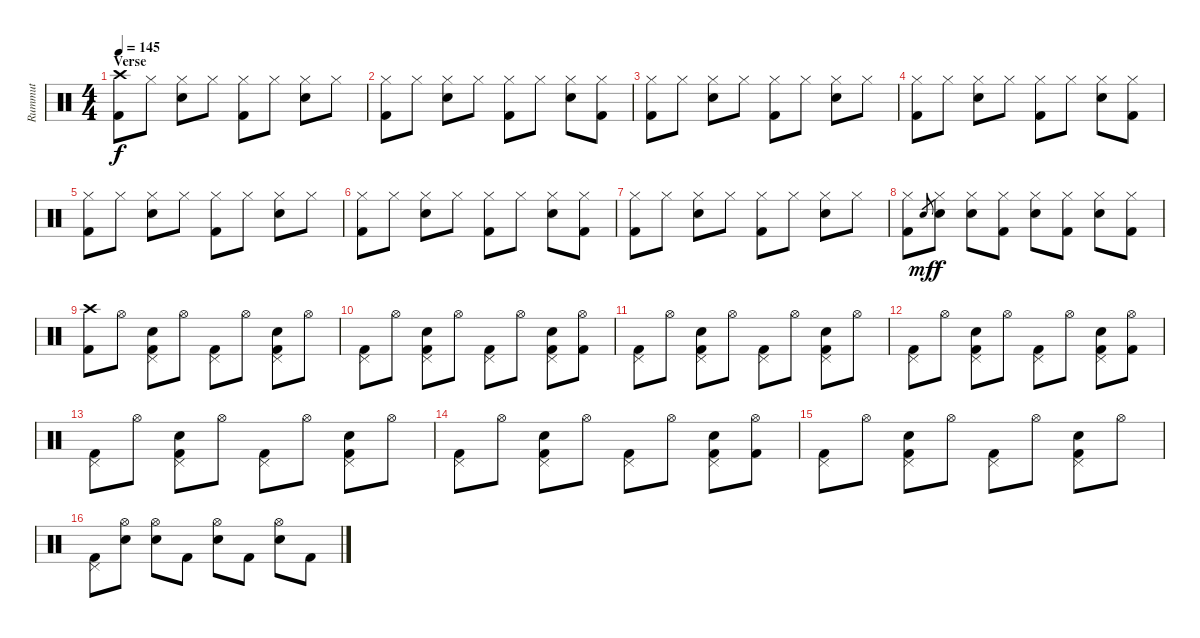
\track ("Rummut" "Rummut") {instrument percussion}
\staff {score}
\articulation defaults
\ts (4 4)
\section ("" "Verse")
\tempo 145
\clef neutral
\ks c
("Crash high (hit)" "Kick (hit) 2").8{dy f} "Hi-Hat (closed)".8 ("Hi-Hat (closed)" "Electric Snare (hit)").8 "Hi-Hat (closed)".8 ("Hi-Hat (closed)" "Kick (hit) 2").8 "Hi-Hat (closed)".8 ("Hi-Hat (closed)" "Electric Snare (hit)").8 "Hi-Hat (closed)".8 |
("Hi-Hat (closed)" "Kick (hit) 2").8 "Hi-Hat (closed)".8 ("Hi-Hat (closed)" "Electric Snare (hit)").8 "Hi-Hat (closed)".8 ("Hi-Hat (closed)" "Kick (hit) 2").8 "Hi-Hat (closed)".8 ("Hi-Hat (closed)" "Electric Snare (hit)").8 ("Hi-Hat (closed)" "Kick (hit) 2").8 |
("Hi-Hat (closed)" "Kick (hit) 2").8 "Hi-Hat (closed)".8 ("Hi-Hat (closed)" "Electric Snare (hit)").8 "Hi-Hat (closed)".8 ("Hi-Hat (closed)" "Kick (hit) 2").8 "Hi-Hat (closed)".8 ("Hi-Hat (closed)" "Electric Snare (hit)").8 "Hi-Hat (closed)".8 |
("Hi-Hat (closed)" "Kick (hit) 2").8 "Hi-Hat (closed)".8 ("Hi-Hat (closed)" "Electric Snare (hit)").8 "Hi-Hat (closed)".8 ("Hi-Hat (closed)" "Kick (hit) 2").8 "Hi-Hat (closed)".8 ("Hi-Hat (closed)" "Electric Snare (hit)").8 ("Hi-Hat (closed)" "Kick (hit) 2").8 |
("Hi-Hat (closed)" "Kick (hit) 2").8 "Hi-Hat (closed)".8 ("Hi-Hat (closed)" "Electric Snare (hit)").8 "Hi-Hat (closed)".8 ("Hi-Hat (closed)" "Kick (hit) 2").8 "Hi-Hat (closed)".8 ("Hi-Hat (closed)" "Electric Snare (hit)").8 "Hi-Hat (closed)".8 |
("Hi-Hat (closed)" "Kick (hit) 2").8 "Hi-Hat (closed)".8 ("Hi-Hat (closed)" "Electric Snare (hit)").8 "Hi-Hat (closed)".8 ("Hi-Hat (closed)" "Kick (hit) 2").8 "Hi-Hat (closed)".8 ("Hi-Hat (closed)" "Electric Snare (hit)").8 ("Hi-Hat (closed)" "Kick (hit) 2").8 |
("Hi-Hat (closed)" "Kick (hit) 2").8 "Hi-Hat (closed)".8 ("Hi-Hat (closed)" "Electric Snare (hit)").8 "Hi-Hat (closed)".8 ("Hi-Hat (closed)" "Kick (hit) 2").8 "Hi-Hat (closed)".8 ("Hi-Hat (closed)" "Electric Snare (hit)").8 "Hi-Hat (closed)".8 |
("Hi-Hat (closed)" "Kick (hit) 2").8 "Electric Snare (hit)".8{gr dy mf} ("Hi-Hat (closed)" "Electric Snare (hit)").8{dy f} ("Hi-Hat (closed)" "Electric Snare (hit)").8 ("Hi-Hat (closed)" "Kick (hit) 2").8 ("Hi-Hat (closed)" "Electric Snare (hit)").8 ("Hi-Hat (closed)" "Kick (hit) 2").8 ("Hi-Hat (closed)" "Electric Snare (hit)").8 ("Hi-Hat (closed)" "Kick (hit) 2").8 |
("Crash high (hit)" "Kick (hit) 2").8 "Hi-Hat (open)".8 ("Pedal Hi-Hat (hit)" "Electric Snare (hit)" "Kick (hit) 2").8 "Hi-Hat (open)".8 ("Pedal Hi-Hat (hit)" "Kick (hit) 2").8 "Hi-Hat (open)".8 ("Pedal Hi-Hat (hit)" "Electric Snare (hit)" "Kick (hit) 2").8 "Hi-Hat (open)".8 |
("Pedal Hi-Hat (hit)" "Kick (hit) 2").8 "Hi-Hat (open)".8 ("Pedal Hi-Hat (hit)" "Electric Snare (hit)" "Kick (hit) 2").8 "Hi-Hat (open)".8 ("Pedal Hi-Hat (hit)" "Kick (hit) 2").8 "Hi-Hat (open)".8 ("Pedal Hi-Hat (hit)" "Electric Snare (hit)" "Kick (hit) 2").8 ("Hi-Hat (open)" "Kick (hit) 2").8 |
("Pedal Hi-Hat (hit)" "Kick (hit) 2").8 "Hi-Hat (open)".8 ("Pedal Hi-Hat (hit)" "Electric Snare (hit)" "Kick (hit) 2").8 "Hi-Hat (open)".8 ("Pedal Hi-Hat (hit)" "Kick (hit) 2").8 "Hi-Hat (open)".8 ("Pedal Hi-Hat (hit)" "Electric Snare (hit)" "Kick (hit) 2").8 "Hi-Hat (open)".8 |
("Pedal Hi-Hat (hit)" "Kick (hit) 2").8 "Hi-Hat (open)".8 ("Pedal Hi-Hat (hit)" "Electric Snare (hit)" "Kick (hit) 2").8 "Hi-Hat (open)".8 ("Pedal Hi-Hat (hit)" "Kick (hit) 2").8 "Hi-Hat (open)".8 ("Pedal Hi-Hat (hit)" "Electric Snare (hit)" "Kick (hit) 2").8 ("Hi-Hat (open)" "Kick (hit) 2").8 |
("Pedal Hi-Hat (hit)" "Kick (hit) 2").8 "Hi-Hat (open)".8 ("Pedal Hi-Hat (hit)" "Electric Snare (hit)" "Kick (hit) 2").8 "Hi-Hat (open)".8 ("Pedal Hi-Hat (hit)" "Kick (hit) 2").8 "Hi-Hat (open)".8 ("Pedal Hi-Hat (hit)" "Electric Snare (hit)" "Kick (hit) 2").8 "Hi-Hat (open)".8 |
("Pedal Hi-Hat (hit)" "Kick (hit) 2").8 "Hi-Hat (open)".8 ("Pedal Hi-Hat (hit)" "Electric Snare (hit)" "Kick (hit) 2").8 "Hi-Hat (open)".8 ("Pedal Hi-Hat (hit)" "Kick (hit) 2").8 "Hi-Hat (open)".8 ("Pedal Hi-Hat (hit)" "Electric Snare (hit)" "Kick (hit) 2").8 ("Hi-Hat (open)" "Kick (hit) 2").8 |
("Pedal Hi-Hat (hit)" "Kick (hit) 2").8 "Hi-Hat (open)".8 ("Pedal Hi-Hat (hit)" "Electric Snare (hit)" "Kick (hit) 2").8 "Hi-Hat (open)".8 ("Pedal Hi-Hat (hit)" "Kick (hit) 2").8 "Hi-Hat (open)".8 ("Pedal Hi-Hat (hit)" "Electric Snare (hit)" "Kick (hit) 2").8 "Hi-Hat (open)".8 |
("Pedal Hi-Hat (hit)" "Kick (hit) 2").8 ("Hi-Hat (open)" "Electric Snare (hit)").8 ("Hi-Hat (open)" "Electric Snare (hit)").8 "Kick (hit) 2".8 ("Hi-Hat (open)" "Electric Snare (hit)").8 "Kick (hit) 2".8 ("Hi-Hat (open)" "Electric Snare (hit)").8 "Kick (hit) 2".8
